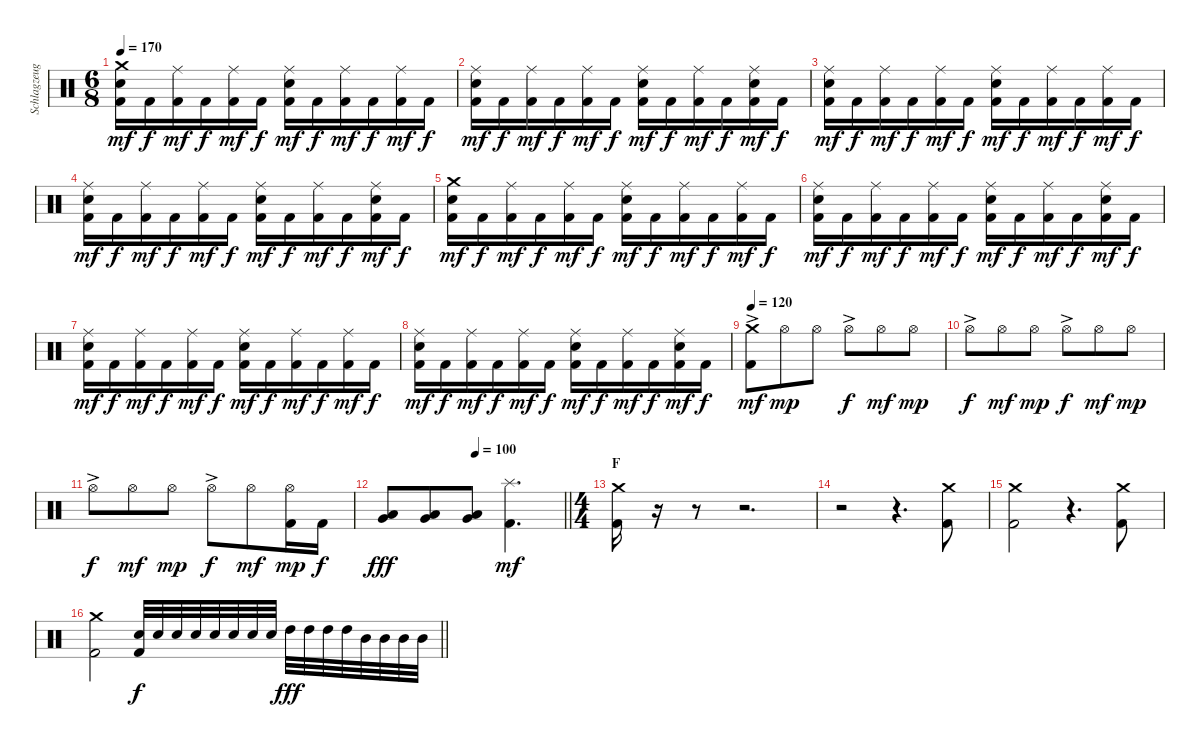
\track ("Schlagzeug" "Schlagzeug") {instrument percussion}
\staff {score}
\articulation defaults
\ts (6 8)
\tempo 170
\clef neutral
\ks c
("Crash medium (hit)" "Electric Snare (hit)" "Kick (hit) 2").16{dy mf} "Kick (hit) 2".16{dy f} ("Ride (middle)" "Kick (hit) 2").16{dy mf} "Kick (hit) 2".16{dy f} ("Ride (middle)" "Kick (hit) 2").16{dy mf} "Kick (hit) 2".16{dy f} ("Ride (middle)" "Electric Snare (hit)" "Kick (hit) 2").16{dy mf} "Kick (hit) 2".16{dy f} ("Ride (middle)" "Kick (hit) 2").16{dy mf} "Kick (hit) 2".16{dy f} ("Ride (middle)" "Kick (hit) 2").16{dy mf} "Kick (hit) 2".16{dy f} |
("Ride (middle)" "Electric Snare (hit)" "Kick (hit) 2").16{dy mf} "Kick (hit) 2".16{dy f} ("Ride (middle)" "Kick (hit) 2").16{dy mf} "Kick (hit) 2".16{dy f} ("Ride (middle)" "Kick (hit) 2").16{dy mf} "Kick (hit) 2".16{dy f} ("Ride (middle)" "Electric Snare (hit)" "Kick (hit) 2").16{dy mf} "Kick (hit) 2".16{dy f} ("Ride (middle)" "Kick (hit) 2").16{dy mf} "Kick (hit) 2".16{dy f} ("Ride (middle)" "Electric Snare (hit)" "Kick (hit) 2").16{dy mf} "Kick (hit) 2".16{dy f} |
("Ride (middle)" "Electric Snare (hit)" "Kick (hit) 2").16{dy mf} "Kick (hit) 2".16{dy f} ("Ride (middle)" "Kick (hit) 2").16{dy mf} "Kick (hit) 2".16{dy f} ("Ride (middle)" "Kick (hit) 2").16{dy mf} "Kick (hit) 2".16{dy f} ("Ride (middle)" "Electric Snare (hit)" "Kick (hit) 2").16{dy mf} "Kick (hit) 2".16{dy f} ("Ride (middle)" "Kick (hit) 2").16{dy mf} "Kick (hit) 2".16{dy f} ("Ride (middle)" "Kick (hit) 2").16{dy mf} "Kick (hit) 2".16{dy f} |
("Ride (middle)" "Electric Snare (hit)" "Kick (hit) 2").16{dy mf} "Kick (hit) 2".16{dy f} ("Ride (middle)" "Kick (hit) 2").16{dy mf} "Kick (hit) 2".16{dy f} ("Ride (middle)" "Kick (hit) 2").16{dy mf} "Kick (hit) 2".16{dy f} ("Ride (middle)" "Electric Snare (hit)" "Kick (hit) 2").16{dy mf} "Kick (hit) 2".16{dy f} ("Ride (middle)" "Kick (hit) 2").16{dy mf} "Kick (hit) 2".16{dy f} ("Ride (middle)" "Electric Snare (hit)" "Kick (hit) 2").16{dy mf} "Kick (hit) 2".16{dy f} |
("Crash medium (hit)" "Electric Snare (hit)" "Kick (hit) 2").16{dy mf} "Kick (hit) 2".16{dy f} ("Ride (middle)" "Kick (hit) 2").16{dy mf} "Kick (hit) 2".16{dy f} ("Ride (middle)" "Kick (hit) 2").16{dy mf} "Kick (hit) 2".16{dy f} ("Ride (middle)" "Electric Snare (hit)" "Kick (hit) 2").16{dy mf} "Kick (hit) 2".16{dy f} ("Ride (middle)" "Kick (hit) 2").16{dy mf} "Kick (hit) 2".16{dy f} ("Ride (middle)" "Kick (hit) 2").16{dy mf} "Kick (hit) 2".16{dy f} |
("Ride (middle)" "Electric Snare (hit)" "Kick (hit) 2").16{dy mf} "Kick (hit) 2".16{dy f} ("Ride (middle)" "Kick (hit) 2").16{dy mf} "Kick (hit) 2".16{dy f} ("Ride (middle)" "Kick (hit) 2").16{dy mf} "Kick (hit) 2".16{dy f} ("Ride (middle)" "Electric Snare (hit)" "Kick (hit) 2").16{dy mf} "Kick (hit) 2".16{dy f} ("Ride (middle)" "Kick (hit) 2").16{dy mf} "Kick (hit) 2".16{dy f} ("Ride (middle)" "Electric Snare (hit)" "Kick (hit) 2").16{dy mf} "Kick (hit) 2".16{dy f} |
("Ride (middle)" "Electric Snare (hit)" "Kick (hit) 2").16{dy mf} "Kick (hit) 2".16{dy f} ("Ride (middle)" "Kick (hit) 2").16{dy mf} "Kick (hit) 2".16{dy f} ("Ride (middle)" "Kick (hit) 2").16{dy mf} "Kick (hit) 2".16{dy f} ("Ride (middle)" "Electric Snare (hit)" "Kick (hit) 2").16{dy mf} "Kick (hit) 2".16{dy f} ("Ride (middle)" "Kick (hit) 2").16{dy mf} "Kick (hit) 2".16{dy f} ("Ride (middle)" "Kick (hit) 2").16{dy mf} "Kick (hit) 2".16{dy f} |
("Ride (middle)" "Electric Snare (hit)" "Kick (hit) 2").16{dy mf} "Kick (hit) 2".16{dy f} ("Ride (middle)" "Kick (hit) 2").16{dy mf} "Kick (hit) 2".16{dy f} ("Ride (middle)" "Kick (hit) 2").16{dy mf} "Kick (hit) 2".16{dy f} ("Ride (middle)" "Electric Snare (hit)" "Kick (hit) 2").16{dy mf} "Kick (hit) 2".16{dy f} ("Ride (middle)" "Kick (hit) 2").16{dy mf} "Kick (hit) 2".16{dy f} ("Ride (middle)" "Electric Snare (hit)" "Kick (hit) 2").16{dy mf} "Kick (hit) 2".16{dy f} |
\tempo 120
("Crash medium (hit)"{ac} "Kick (hit) 2").8{dy mf} "Hi-Hat (open)".8{dy mp} "Hi-Hat (open)".8 "Hi-Hat (open)"{ac}.8{dy f} "Hi-Hat (open)".8{dy mf} "Hi-Hat (open)".8{dy mp} |
"Hi-Hat (open)"{ac}.8{dy f} "Hi-Hat (open)".8{dy mf} "Hi-Hat (open)".8{dy mp} "Hi-Hat (open)"{ac}.8{dy f} "Hi-Hat (open)".8{dy mf} "Hi-Hat (open)".8{dy mp} |
"Hi-Hat (open)"{ac}.8{dy f} "Hi-Hat (open)".8{dy mf} "Hi-Hat (open)".8{dy mp} "Hi-Hat (open)"{ac}.8{dy f} "Hi-Hat (open)".8{dy mf} ("Hi-Hat (open)" "Kick (hit) 2").16{dy mp} "Kick (hit) 2".16{dy f} |
\tempo (100 0.5)
\barLineRight lightlight
("Low Tom (hit)" "Very Low Tom (hit)").8{bd 60 dy fff} ("Low Tom (hit)" "Very Low Tom (hit)").8{bd 60} ("Low Tom (hit)" "Very Low Tom (hit)").8{bd 60} ("Splash (hit)" "Kick (hit) 2").4{d dy mf} |
\ts (4 4)
\section ("" "F")
("Crash medium (hit)" "Kick (hit) 2").16 r.16 r.8 r.2{d} |
r.2 r.4{d} ("Crash medium (hit)" "Kick (hit) 2").8 |
("Crash medium (hit)" "Kick (hit) 2").2 r.4{d} ("Crash medium (hit)" "Kick (hit) 2").8 |
\barLineRight lightlight
("Crash medium (hit)" "Kick (hit) 2").2 ("Electric Snare (hit)" "Kick (hit) 2").32{dy f} "Electric Snare (hit)".32 "Electric Snare (hit)".32 "Electric Snare (hit)".32 "Electric Snare (hit)".32 "Electric Snare (hit)".32 "Electric Snare (hit)".32 "Electric Snare (hit)".32 "High Tom (hit)".32{dy fff} "High Tom (hit)".32 "High Tom (hit)".32 "High Tom (hit)".32 "Mid Tom (hit)".32 "Mid Tom (hit)".32 "Mid Tom (hit)".32 "Mid Tom (hit)".32
